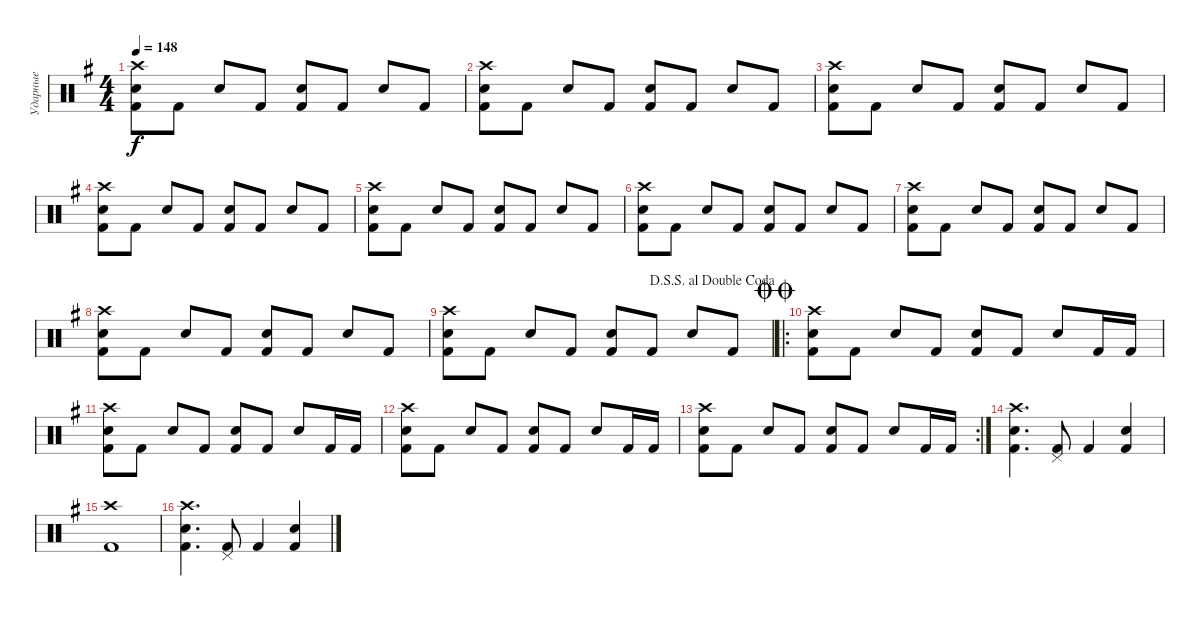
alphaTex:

\track ("Ударные" "Ударные") {instrument percussion}
\staff {score}
\articulation defaults
\ts (4 4)
\tempo 148
\clef neutral
\ks g
("Crash high (hit)" "Snare (hit) 2" "Kick (hit) 2").8{dy f} "Kick (hit) 2".8 "Snare (hit) 2".8 "Kick (hit) 2".8 ("Snare (hit) 2" "Kick (hit) 2").8 "Kick (hit) 2".8 "Snare (hit) 2".8 "Kick (hit) 2".8 |
("Crash high (hit)" "Snare (hit) 2" "Kick (hit) 2").8 "Kick (hit) 2".8 "Snare (hit) 2".8 "Kick (hit) 2".8 ("Snare (hit) 2" "Kick (hit) 2").8 "Kick (hit) 2".8 "Snare (hit) 2".8 "Kick (hit) 2".8 |
("Crash high (hit)" "Snare (hit) 2" "Kick (hit) 2").8 "Kick (hit) 2".8 "Snare (hit) 2".8 "Kick (hit) 2".8 ("Snare (hit) 2" "Kick (hit) 2").8 "Kick (hit) 2".8 "Snare (hit) 2".8 "Kick (hit) 2".8 |
("Crash high (hit)" "Snare (hit) 2" "Kick (hit) 2").8 "Kick (hit) 2".8 "Snare (hit) 2".8 "Kick (hit) 2".8 ("Snare (hit) 2" "Kick (hit) 2").8 "Kick (hit) 2".8 "Snare (hit) 2".8 "Kick (hit) 2".8 |
("Crash high (hit)" "Snare (hit) 2" "Kick (hit) 2").8 "Kick (hit) 2".8 "Snare (hit) 2".8 "Kick (hit) 2".8 ("Snare (hit) 2" "Kick (hit) 2").8 "Kick (hit) 2".8 "Snare (hit) 2".8 "Kick (hit) 2".8 |
("Crash high (hit)" "Snare (hit) 2" "Kick (hit) 2").8 "Kick (hit) 2".8 "Snare (hit) 2".8 "Kick (hit) 2".8 ("Snare (hit) 2" "Kick (hit) 2").8 "Kick (hit) 2".8 "Snare (hit) 2".8 "Kick (hit) 2".8 |
("Crash high (hit)" "Snare (hit) 2" "Kick (hit) 2").8 "Kick (hit) 2".8 "Snare (hit) 2".8 "Kick (hit) 2".8 ("Snare (hit) 2" "Kick (hit) 2").8 "Kick (hit) 2".8 "Snare (hit) 2".8 "Kick (hit) 2".8 |
("Crash high (hit)" "Snare (hit) 2" "Kick (hit) 2").8 "Kick (hit) 2".8 "Snare (hit) 2".8 "Kick (hit) 2".8 ("Snare (hit) 2" "Kick (hit) 2").8 "Kick (hit) 2".8 "Snare (hit) 2".8 "Kick (hit) 2".8 |
\jump dalsegnosegnoaldoublecoda
("Crash high (hit)" "Snare (hit) 2" "Kick (hit) 2").8 "Kick (hit) 2".8 "Snare (hit) 2".8 "Kick (hit) 2".8 ("Snare (hit) 2" "Kick (hit) 2").8 "Kick (hit) 2".8 "Snare (hit) 2".8 "Kick (hit) 2".8 |
\ro
\jump doublecoda
("Crash high (hit)" "Snare (hit) 2" "Kick (hit) 2").8 "Kick (hit) 2".8 "Snare (hit) 2".8 "Kick (hit) 2".8 ("Snare (hit) 2" "Kick (hit) 2").8 "Kick (hit) 2".8 "Snare (hit) 2".8 "Kick (hit) 2".16 "Kick (hit) 2".16 |
("Crash high (hit)" "Snare (hit) 2" "Kick (hit) 2").8 "Kick (hit) 2".8 "Snare (hit) 2".8 "Kick (hit) 2".8 ("Snare (hit) 2" "Kick (hit) 2").8 "Kick (hit) 2".8 "Snare (hit) 2".8 "Kick (hit) 2".16 "Kick (hit) 2".16 |
("Crash high (hit)" "Snare (hit) 2" "Kick (hit) 2").8 "Kick (hit) 2".8 "Snare (hit) 2".8 "Kick (hit) 2".8 ("Snare (hit) 2" "Kick (hit) 2").8 "Kick (hit) 2".8 "Snare (hit) 2".8 "Kick (hit) 2".16 "Kick (hit) 2".16 |
\rc 2
("Crash high (hit)" "Snare (hit) 2" "Kick (hit) 2").8 "Kick (hit) 2".8 "Snare (hit) 2".8 "Kick (hit) 2".8 ("Snare (hit) 2" "Kick (hit) 2").8 "Kick (hit) 2".8 "Snare (hit) 2".8 "Kick (hit) 2".16 "Kick (hit) 2".16 |
("Crash high (hit)" "Snare (hit) 2" "Kick (hit) 2").4{d} ("Pedal Hi-Hat (hit)" "Kick (hit) 2").8 "Kick (hit) 2".4 ("Snare (hit) 2" "Kick (hit) 2").4 |
("Crash high (hit)" "Kick (hit) 2").1 |
("Crash high (hit)" "Snare (hit) 2" "Kick (hit) 2").4{d} ("Pedal Hi-Hat (hit)" "Kick (hit) 2").8 "Kick (hit) 2".4 ("Snare (hit) 2" "Kick (hit) 2").4
